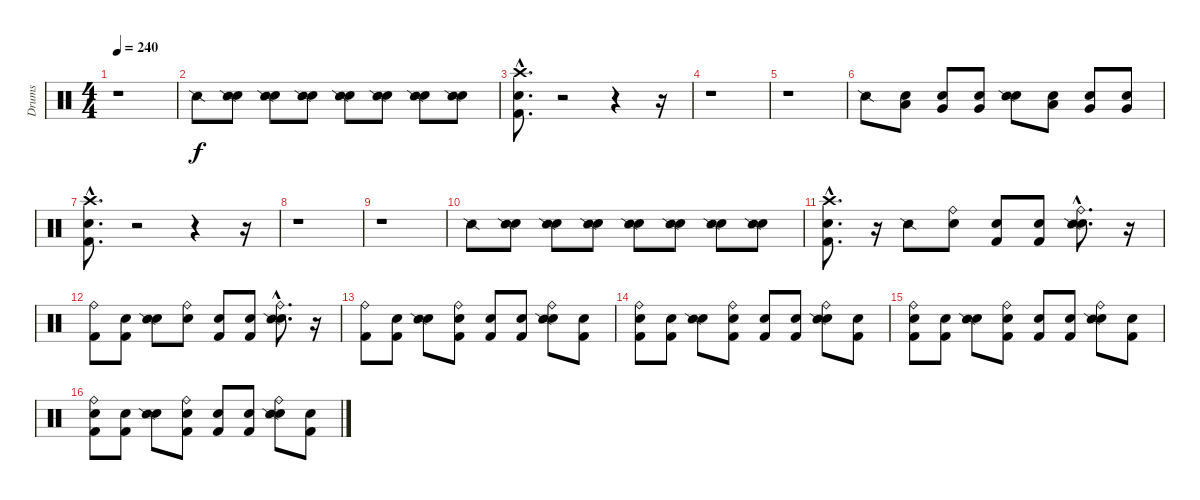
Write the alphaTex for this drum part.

\track ("Drums" "Drums") {instrument percussion}
\staff {score}
\articulation defaults
\ts (4 4)
\tempo 240
\clef neutral
\ks c
r.1{dy f} |
"Snare (side stick) 2".8 ("Snare (hit)" "Snare (side stick) 2").8 ("Snare (hit)" "Snare (side stick) 2").8 ("Snare (hit)" "Snare (side stick) 2").8 ("Snare (hit)" "Snare (side stick) 2").8 ("Snare (hit)" "Snare (side stick) 2").8 ("Snare (hit)" "Snare (side stick) 2").8 ("Snare (hit)" "Snare (side stick) 2").8 |
("Snare (hit)"{hac} "Kick (hit) 2"{hac} "Crash high (hit)"{hac}).8{d} r.2 r.4 r.16 |
r.1 |
r.1 |
"Snare (side stick) 2".8 ("Snare (hit)" "Low Tom (hit)").8 ("Snare (hit)" "Very Low Tom (hit)").8 ("Snare (hit)" "Very Low Tom (hit)").8 ("Snare (hit)" "Snare (side stick) 2").8 ("Snare (hit)" "Low Tom (hit)").8 ("Snare (hit)" "Very Low Tom (hit)").8 ("Snare (hit)" "Very Low Tom (hit)").8 |
("Snare (hit)"{hac} "Kick (hit) 2"{hac} "Crash high (hit)"{hac}).8{d} r.2 r.4 r.16 |
r.1 |
r.1 |
"Snare (side stick) 2".8 ("Snare (hit)" "Snare (side stick) 2").8 ("Snare (hit)" "Snare (side stick) 2").8 ("Snare (hit)" "Snare (side stick) 2").8 ("Snare (hit)" "Snare (side stick) 2").8 ("Snare (hit)" "Snare (side stick) 2").8 ("Snare (hit)" "Snare (side stick) 2").8 ("Snare (hit)" "Snare (side stick) 2").8 |
("Snare (hit)"{hac} "Kick (hit) 2"{hac} "Crash high (hit)"{hac}).8{d} r.16 "Snare (side stick) 2".8 ("Snare (hit)" "Ride (bell)").8 ("Snare (hit)" "Kick (hit) 2").8 ("Snare (hit)" "Kick (hit) 2").8 ("Snare (hit)"{hac} "Snare (side stick) 2"{hac} "Ride (bell)"{hac}).8{d} r.16 |
("Kick (hit) 2" "Ride (bell)").8 ("Snare (hit)" "Kick (hit) 2").8 ("Snare (hit)" "Snare (side stick) 2").8 ("Snare (hit)" "Ride (bell)").8 ("Snare (hit)" "Kick (hit) 2").8 ("Snare (hit)" "Kick (hit) 2").8 ("Snare (hit)"{hac} "Snare (side stick) 2"{hac} "Ride (bell)"{hac}).8{d} r.16 |
("Kick (hit) 2" "Ride (bell)").8 ("Snare (hit)" "Kick (hit) 2").8 ("Snare (hit)" "Snare (side stick) 2").8 ("Snare (hit)" "Kick (hit) 2" "Ride (bell)").8 ("Snare (hit)" "Kick (hit) 2").8 ("Snare (hit)" "Kick (hit) 2").8 ("Snare (hit)" "Ride (bell)" "Snare (side stick) 2").8 ("Snare (hit)" "Kick (hit) 2").8 |
("Snare (hit)" "Kick (hit) 2" "Ride (bell)").8 ("Snare (hit)" "Kick (hit) 2").8 ("Snare (hit)" "Snare (side stick) 2").8 ("Snare (hit)" "Kick (hit) 2" "Ride (bell)").8 ("Snare (hit)" "Kick (hit) 2").8 ("Snare (hit)" "Kick (hit) 2").8 ("Snare (hit)" "Ride (bell)" "Snare (side stick) 2").8 ("Snare (hit)" "Kick (hit) 2").8 |
("Snare (hit)" "Kick (hit) 2" "Ride (bell)").8 ("Snare (hit)" "Kick (hit) 2").8 ("Snare (hit)" "Snare (side stick) 2").8 ("Snare (hit)" "Kick (hit) 2" "Ride (bell)").8 ("Snare (hit)" "Kick (hit) 2").8 ("Snare (hit)" "Kick (hit) 2").8 ("Snare (hit)" "Ride (bell)" "Snare (side stick) 2").8 ("Snare (hit)" "Kick (hit) 2").8 |
("Snare (hit)" "Kick (hit) 2" "Ride (bell)").8 ("Snare (hit)" "Kick (hit) 2").8 ("Snare (hit)" "Snare (side stick) 2").8 ("Snare (hit)" "Kick (hit) 2" "Ride (bell)").8 ("Snare (hit)" "Kick (hit) 2").8 ("Snare (hit)" "Kick (hit) 2").8 ("Snare (hit)" "Ride (bell)" "Snare (side stick) 2").8 ("Snare (hit)" "Kick (hit) 2").8
